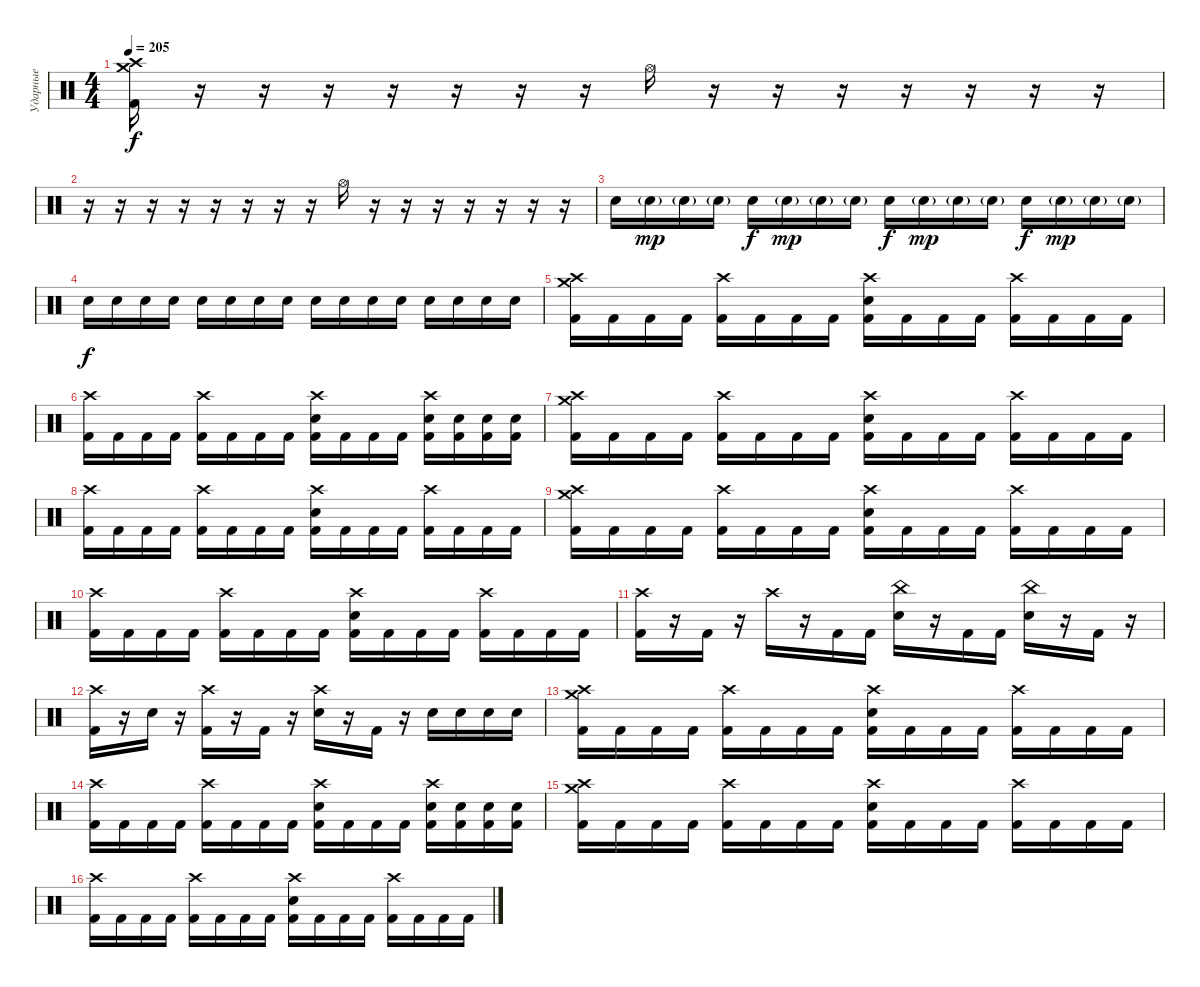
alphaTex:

\track ("Ударные" "Ударные") {instrument percussion}
\staff {score}
\articulation defaults
\ts (4 4)
\tempo 205
\clef neutral
\ks c
("Crash high (hit)" "Crash medium (hit)" "Kick (hit) 2").16{dy f} r.16 r.16 r.16 r.16 r.16 r.16 r.16 "Hi-Hat (open)".16 r.16 r.16 r.16 r.16 r.16 r.16 r.16 |
r.16 r.16 r.16 r.16 r.16 r.16 r.16 r.16 "Hi-Hat (open)".16 r.16 r.16 r.16 r.16 r.16 r.16 r.16 |
"Electric Snare (hit)".16 "Electric Snare (hit)"{g}.16{dy mp} "Electric Snare (hit)"{g}.16 "Electric Snare (hit)"{g}.16 "Electric Snare (hit)".16{dy f} "Electric Snare (hit)"{g}.16{dy mp} "Electric Snare (hit)"{g}.16 "Electric Snare (hit)"{g}.16 "Electric Snare (hit)".16{dy f} "Electric Snare (hit)"{g}.16{dy mp} "Electric Snare (hit)"{g}.16 "Electric Snare (hit)"{g}.16 "Electric Snare (hit)".16{dy f} "Electric Snare (hit)"{g}.16{dy mp} "Electric Snare (hit)"{g}.16 "Electric Snare (hit)"{g}.16 |
"Electric Snare (hit)".16{dy f} "Electric Snare (hit)".16 "Electric Snare (hit)".16 "Electric Snare (hit)".16 "Electric Snare (hit)".16 "Electric Snare (hit)".16 "Electric Snare (hit)".16 "Electric Snare (hit)".16 "Electric Snare (hit)".16 "Electric Snare (hit)".16 "Electric Snare (hit)".16 "Electric Snare (hit)".16 "Electric Snare (hit)".16 "Electric Snare (hit)".16 "Electric Snare (hit)".16 "Electric Snare (hit)".16 |
("Crash high (hit)" "Crash medium (hit)" "Kick (hit) 2").16 "Kick (hit) 2".16 "Kick (hit) 2".16 "Kick (hit) 2".16 ("Crash high (hit)" "Kick (hit) 2").16 "Kick (hit) 2".16 "Kick (hit) 2".16 "Kick (hit) 2".16 ("Crash high (hit)" "Electric Snare (hit)" "Kick (hit) 2").16 "Kick (hit) 2".16 "Kick (hit) 2".16 "Kick (hit) 2".16 ("Crash high (hit)" "Kick (hit) 2").16 "Kick (hit) 2".16 "Kick (hit) 2".16 "Kick (hit) 2".16 |
("Crash high (hit)" "Kick (hit) 2").16 "Kick (hit) 2".16 "Kick (hit) 2".16 "Kick (hit) 2".16 ("Crash high (hit)" "Kick (hit) 2").16 "Kick (hit) 2".16 "Kick (hit) 2".16 "Kick (hit) 2".16 ("Crash high (hit)" "Electric Snare (hit)" "Kick (hit) 2").16 "Kick (hit) 2".16 "Kick (hit) 2".16 "Kick (hit) 2".16 ("Crash high (hit)" "Electric Snare (hit)" "Kick (hit) 2").16 ("Electric Snare (hit)" "Kick (hit) 2").16 ("Electric Snare (hit)" "Kick (hit) 2").16 ("Electric Snare (hit)" "Kick (hit) 2").16 |
("Crash high (hit)" "Crash medium (hit)" "Kick (hit) 2").16 "Kick (hit) 2".16 "Kick (hit) 2".16 "Kick (hit) 2".16 ("Crash high (hit)" "Kick (hit) 2").16 "Kick (hit) 2".16 "Kick (hit) 2".16 "Kick (hit) 2".16 ("Crash high (hit)" "Electric Snare (hit)" "Kick (hit) 2").16 "Kick (hit) 2".16 "Kick (hit) 2".16 "Kick (hit) 2".16 ("Crash high (hit)" "Kick (hit) 2").16 "Kick (hit) 2".16 "Kick (hit) 2".16 "Kick (hit) 2".16 |
("Crash high (hit)" "Kick (hit) 2").16 "Kick (hit) 2".16 "Kick (hit) 2".16 "Kick (hit) 2".16 ("Crash high (hit)" "Kick (hit) 2").16 "Kick (hit) 2".16 "Kick (hit) 2".16 "Kick (hit) 2".16 ("Crash high (hit)" "Electric Snare (hit)" "Kick (hit) 2").16 "Kick (hit) 2".16 "Kick (hit) 2".16 "Kick (hit) 2".16 ("Crash high (hit)" "Kick (hit) 2").16 "Kick (hit) 2".16 "Kick (hit) 2".16 "Kick (hit) 2".16 |
("Crash high (hit)" "Crash medium (hit)" "Kick (hit) 2").16 "Kick (hit) 2".16 "Kick (hit) 2".16 "Kick (hit) 2".16 ("Crash high (hit)" "Kick (hit) 2").16 "Kick (hit) 2".16 "Kick (hit) 2".16 "Kick (hit) 2".16 ("Crash high (hit)" "Electric Snare (hit)" "Kick (hit) 2").16 "Kick (hit) 2".16 "Kick (hit) 2".16 "Kick (hit) 2".16 ("Crash high (hit)" "Kick (hit) 2").16 "Kick (hit) 2".16 "Kick (hit) 2".16 "Kick (hit) 2".16 |
("Crash high (hit)" "Kick (hit) 2").16 "Kick (hit) 2".16 "Kick (hit) 2".16 "Kick (hit) 2".16 ("Crash high (hit)" "Kick (hit) 2").16 "Kick (hit) 2".16 "Kick (hit) 2".16 "Kick (hit) 2".16 ("Crash high (hit)" "Electric Snare (hit)" "Kick (hit) 2").16 "Kick (hit) 2".16 "Kick (hit) 2".16 "Kick (hit) 2".16 ("Crash high (hit)" "Kick (hit) 2").16 "Kick (hit) 2".16 "Kick (hit) 2".16 "Kick (hit) 2".16 |
("Crash high (hit)" "Kick (hit) 2").16 r.16 "Kick (hit) 2".16 r.16 "Crash high (hit)".16 r.16 "Kick (hit) 2".16 "Kick (hit) 2".16 ("China (hit)" "Electric Snare (hit)").16 r.16 "Kick (hit) 2".16 "Kick (hit) 2".16 ("China (hit)" "Electric Snare (hit)").16 r.16 "Kick (hit) 2".16 r.16 |
("Crash high (hit)" "Kick (hit) 2").16 r.16 "Electric Snare (hit)".16 r.16 ("Crash high (hit)" "Kick (hit) 2").16 r.16 "Kick (hit) 2".16 r.16 ("Crash high (hit)" "Electric Snare (hit)").16 r.16 "Kick (hit) 2".16 r.16 "Electric Snare (hit)".16 "Electric Snare (hit)".16 "Electric Snare (hit)".16 "Electric Snare (hit)".16 |
("Crash high (hit)" "Crash medium (hit)" "Kick (hit) 2").16 "Kick (hit) 2".16 "Kick (hit) 2".16 "Kick (hit) 2".16 ("Crash high (hit)" "Kick (hit) 2").16 "Kick (hit) 2".16 "Kick (hit) 2".16 "Kick (hit) 2".16 ("Crash high (hit)" "Electric Snare (hit)" "Kick (hit) 2").16 "Kick (hit) 2".16 "Kick (hit) 2".16 "Kick (hit) 2".16 ("Crash high (hit)" "Kick (hit) 2").16 "Kick (hit) 2".16 "Kick (hit) 2".16 "Kick (hit) 2".16 |
("Crash high (hit)" "Kick (hit) 2").16 "Kick (hit) 2".16 "Kick (hit) 2".16 "Kick (hit) 2".16 ("Crash high (hit)" "Kick (hit) 2").16 "Kick (hit) 2".16 "Kick (hit) 2".16 "Kick (hit) 2".16 ("Crash high (hit)" "Electric Snare (hit)" "Kick (hit) 2").16 "Kick (hit) 2".16 "Kick (hit) 2".16 "Kick (hit) 2".16 ("Crash high (hit)" "Electric Snare (hit)" "Kick (hit) 2").16 ("Electric Snare (hit)" "Kick (hit) 2").16 ("Electric Snare (hit)" "Kick (hit) 2").16 ("Electric Snare (hit)" "Kick (hit) 2").16 |
("Crash high (hit)" "Crash medium (hit)" "Kick (hit) 2").16 "Kick (hit) 2".16 "Kick (hit) 2".16 "Kick (hit) 2".16 ("Crash high (hit)" "Kick (hit) 2").16 "Kick (hit) 2".16 "Kick (hit) 2".16 "Kick (hit) 2".16 ("Crash high (hit)" "Electric Snare (hit)" "Kick (hit) 2").16 "Kick (hit) 2".16 "Kick (hit) 2".16 "Kick (hit) 2".16 ("Crash high (hit)" "Kick (hit) 2").16 "Kick (hit) 2".16 "Kick (hit) 2".16 "Kick (hit) 2".16 |
("Crash high (hit)" "Kick (hit) 2").16 "Kick (hit) 2".16 "Kick (hit) 2".16 "Kick (hit) 2".16 ("Crash high (hit)" "Kick (hit) 2").16 "Kick (hit) 2".16 "Kick (hit) 2".16 "Kick (hit) 2".16 ("Crash high (hit)" "Electric Snare (hit)" "Kick (hit) 2").16 "Kick (hit) 2".16 "Kick (hit) 2".16 "Kick (hit) 2".16 ("Crash high (hit)" "Kick (hit) 2").16 "Kick (hit) 2".16 "Kick (hit) 2".16 "Kick (hit) 2".16
